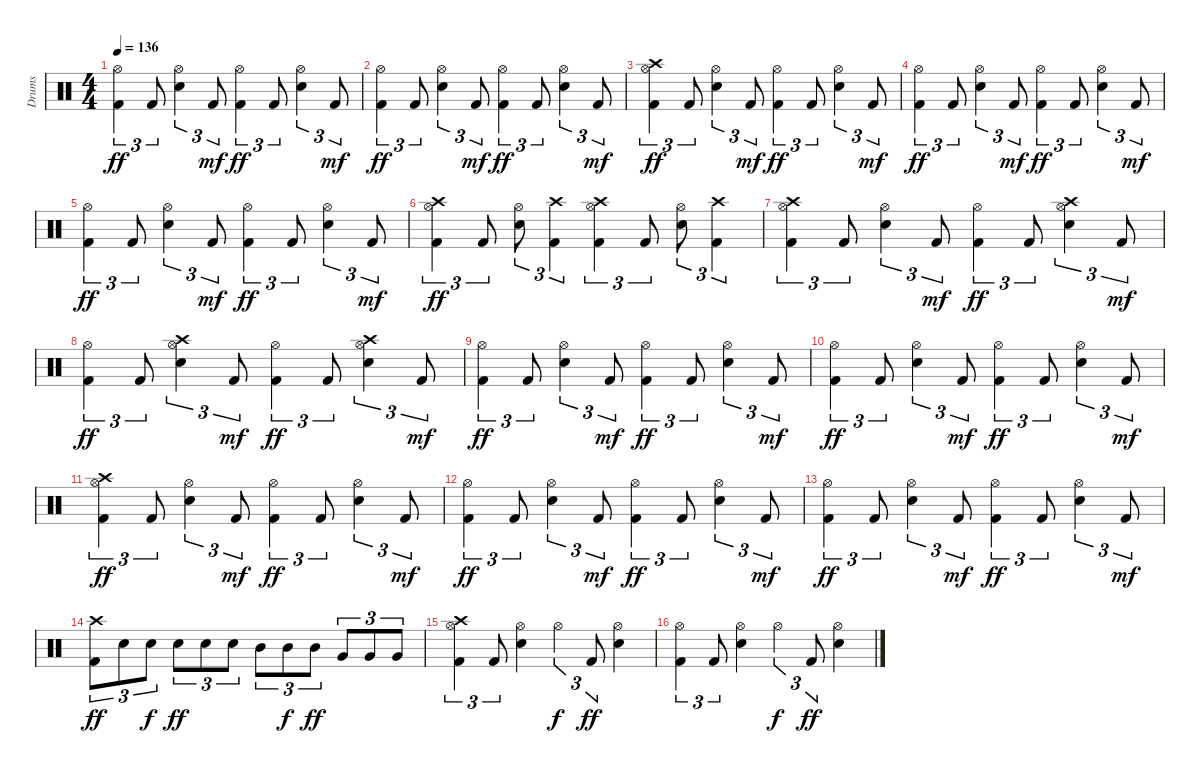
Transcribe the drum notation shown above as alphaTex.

\track ("Drums" "Drums") {instrument percussion}
\staff {score}
\articulation defaults
\ts (4 4)
\tempo 136
\clef neutral
\ks c
("Kick (hit) 2" "Hi-Hat (open)").4{tu (3 2) dy ff} "Kick (hit) 2".8{tu (3 2)} ("Hi-Hat (open)" "Snare (hit) 2").4{tu (3 2)} "Kick (hit) 2".8{tu (3 2) dy mf} ("Hi-Hat (open)" "Kick (hit) 2").4{tu (3 2) dy ff} "Kick (hit) 2".8{tu (3 2)} ("Snare (hit) 2" "Hi-Hat (open)").4{tu (3 2)} "Kick (hit) 2".8{tu (3 2) dy mf} |
("Hi-Hat (open)" "Kick (hit) 2").4{tu (3 2) dy ff} "Kick (hit) 2".8{tu (3 2)} ("Snare (hit) 2" "Hi-Hat (open)").4{tu (3 2)} "Kick (hit) 2".8{tu (3 2) dy mf} ("Hi-Hat (open)" "Kick (hit) 2").4{tu (3 2) dy ff} "Kick (hit) 2".8{tu (3 2)} ("Hi-Hat (open)" "Snare (hit) 2").4{tu (3 2)} "Kick (hit) 2".8{tu (3 2) dy mf} |
("Crash high (hit)" "Kick (hit) 2" "Hi-Hat (open)").4{tu (3 2) dy ff} "Kick (hit) 2".8{tu (3 2)} ("Snare (hit) 2" "Hi-Hat (open)").4{tu (3 2)} "Kick (hit) 2".8{tu (3 2) dy mf} ("Hi-Hat (open)" "Kick (hit) 2").4{tu (3 2) dy ff} "Kick (hit) 2".8{tu (3 2)} ("Hi-Hat (open)" "Snare (hit) 2").4{tu (3 2)} "Kick (hit) 2".8{tu (3 2) dy mf} |
("Kick (hit) 2" "Hi-Hat (open)").4{tu (3 2) dy ff} "Kick (hit) 2".8{tu (3 2)} ("Snare (hit) 2" "Hi-Hat (open)").4{tu (3 2)} "Kick (hit) 2".8{tu (3 2) dy mf} ("Hi-Hat (open)" "Kick (hit) 2").4{tu (3 2) dy ff} "Kick (hit) 2".8{tu (3 2)} ("Hi-Hat (open)" "Snare (hit) 2").4{tu (3 2)} "Kick (hit) 2".8{tu (3 2) dy mf} |
("Hi-Hat (open)" "Kick (hit) 2").4{tu (3 2) dy ff} "Kick (hit) 2".8{tu (3 2)} ("Hi-Hat (open)" "Snare (hit) 2").4{tu (3 2)} "Kick (hit) 2".8{tu (3 2) dy mf} ("Kick (hit) 2" "Hi-Hat (open)").4{tu (3 2) dy ff} "Kick (hit) 2".8{tu (3 2)} ("Hi-Hat (open)" "Snare (hit) 2").4{tu (3 2)} "Kick (hit) 2".8{tu (3 2) dy mf} |
("Kick (hit) 2" "Crash high (hit)" "Hi-Hat (open)").4{tu (3 2) dy ff} "Kick (hit) 2".8{tu (3 2)} ("Hi-Hat (open)" "Snare (hit) 2").8{tu (3 2)} ("Crash high (hit)" "Kick (hit) 2").4{tu (3 2)} ("Hi-Hat (open)" "Kick (hit) 2" "Crash high (hit)").4{tu (3 2)} "Kick (hit) 2".8{tu (3 2)} ("Snare (hit) 2" "Hi-Hat (open)").8{tu (3 2)} ("Kick (hit) 2" "Crash high (hit)").4{tu (3 2)} |
("Kick (hit) 2" "Crash high (hit)" "Hi-Hat (open)").4{tu (3 2)} "Kick (hit) 2".8{tu (3 2)} ("Hi-Hat (open)" "Snare (hit) 2").4{tu (3 2)} "Kick (hit) 2".8{tu (3 2) dy mf} ("Hi-Hat (open)" "Kick (hit) 2").4{tu (3 2) dy ff} "Kick (hit) 2".8{tu (3 2)} ("Snare (hit) 2" "Crash high (hit)" "Hi-Hat (open)").4{tu (3 2)} "Kick (hit) 2".8{tu (3 2) dy mf} |
("Kick (hit) 2" "Hi-Hat (open)").4{tu (3 2) dy ff} "Kick (hit) 2".8{tu (3 2)} ("Snare (hit) 2" "Hi-Hat (open)" "Crash high (hit)").4{tu (3 2)} "Kick (hit) 2".8{tu (3 2) dy mf} ("Kick (hit) 2" "Hi-Hat (open)").4{tu (3 2) dy ff} "Kick (hit) 2".8{tu (3 2)} ("Hi-Hat (open)" "Crash high (hit)" "Snare (hit) 2").4{tu (3 2)} "Kick (hit) 2".8{tu (3 2) dy mf} |
("Kick (hit) 2" "Hi-Hat (open)").4{tu (3 2) dy ff} "Kick (hit) 2".8{tu (3 2)} ("Snare (hit) 2" "Hi-Hat (open)").4{tu (3 2)} "Kick (hit) 2".8{tu (3 2) dy mf} ("Hi-Hat (open)" "Kick (hit) 2").4{tu (3 2) dy ff} "Kick (hit) 2".8{tu (3 2)} ("Hi-Hat (open)" "Snare (hit) 2").4{tu (3 2)} "Kick (hit) 2".8{tu (3 2) dy mf} |
("Kick (hit) 2" "Hi-Hat (open)").4{tu (3 2) dy ff} "Kick (hit) 2".8{tu (3 2)} ("Snare (hit) 2" "Hi-Hat (open)").4{tu (3 2)} "Kick (hit) 2".8{tu (3 2) dy mf} ("Hi-Hat (open)" "Kick (hit) 2").4{tu (3 2) dy ff} "Kick (hit) 2".8{tu (3 2)} ("Hi-Hat (open)" "Snare (hit) 2").4{tu (3 2)} "Kick (hit) 2".8{tu (3 2) dy mf} |
("Crash high (hit)" "Hi-Hat (open)" "Kick (hit) 2").4{tu (3 2) dy ff} "Kick (hit) 2".8{tu (3 2)} ("Snare (hit) 2" "Hi-Hat (open)").4{tu (3 2)} "Kick (hit) 2".8{tu (3 2) dy mf} ("Kick (hit) 2" "Hi-Hat (open)").4{tu (3 2) dy ff} "Kick (hit) 2".8{tu (3 2)} ("Snare (hit) 2" "Hi-Hat (open)").4{tu (3 2)} "Kick (hit) 2".8{tu (3 2) dy mf} |
("Hi-Hat (open)" "Kick (hit) 2").4{tu (3 2) dy ff} "Kick (hit) 2".8{tu (3 2)} ("Snare (hit) 2" "Hi-Hat (open)").4{tu (3 2)} "Kick (hit) 2".8{tu (3 2) dy mf} ("Hi-Hat (open)" "Kick (hit) 2").4{tu (3 2) dy ff} "Kick (hit) 2".8{tu (3 2)} ("Hi-Hat (open)" "Snare (hit) 2").4{tu (3 2)} "Kick (hit) 2".8{tu (3 2) dy mf} |
("Hi-Hat (open)" "Kick (hit) 2").4{tu (3 2) dy ff} "Kick (hit) 2".8{tu (3 2)} ("Snare (hit) 2" "Hi-Hat (open)").4{tu (3 2)} "Kick (hit) 2".8{tu (3 2) dy mf} ("Hi-Hat (open)" "Kick (hit) 2").4{tu (3 2) dy ff} "Kick (hit) 2".8{tu (3 2)} ("Hi-Hat (open)" "Snare (hit) 2").4{tu (3 2)} "Kick (hit) 2".8{tu (3 2) dy mf} |
("Kick (hit) 2" "Crash high (hit)").8{tu (3 2) dy ff} "Snare (hit) 2".8{tu (3 2)} "Snare (hit) 2".8{tu (3 2) dy f} "Snare (hit) 2".8{tu (3 2) dy ff} "Snare (hit) 2".8{tu (3 2)} "Snare (hit) 2".8{tu (3 2)} "Mid Tom (hit)".8{tu (3 2)} "Mid Tom (hit)".8{tu (3 2) dy f} "Mid Tom (hit)".8{tu (3 2) dy ff} "Very Low Tom (hit)".8{tu (3 2)} "Very Low Tom (hit)".8{tu (3 2)} "Very Low Tom (hit)".8{tu (3 2)} |
("Hi-Hat (open)" "Kick (hit) 2" "Crash high (hit)").4{tu (3 2)} "Kick (hit) 2".8{tu (3 2)} ("Hi-Hat (open)" "Snare (hit) 2").4 "Hi-Hat (open)".4{tu (3 2) dy f} "Kick (hit) 2".8{tu (3 2) dy ff} ("Snare (hit) 2" "Hi-Hat (open)").4 |
("Hi-Hat (open)" "Kick (hit) 2").4{tu (3 2)} "Kick (hit) 2".8{tu (3 2)} ("Snare (hit) 2" "Hi-Hat (open)").4 "Hi-Hat (open)".4{tu (3 2) dy f} "Kick (hit) 2".8{tu (3 2) dy ff} ("Snare (hit) 2" "Hi-Hat (open)").4
